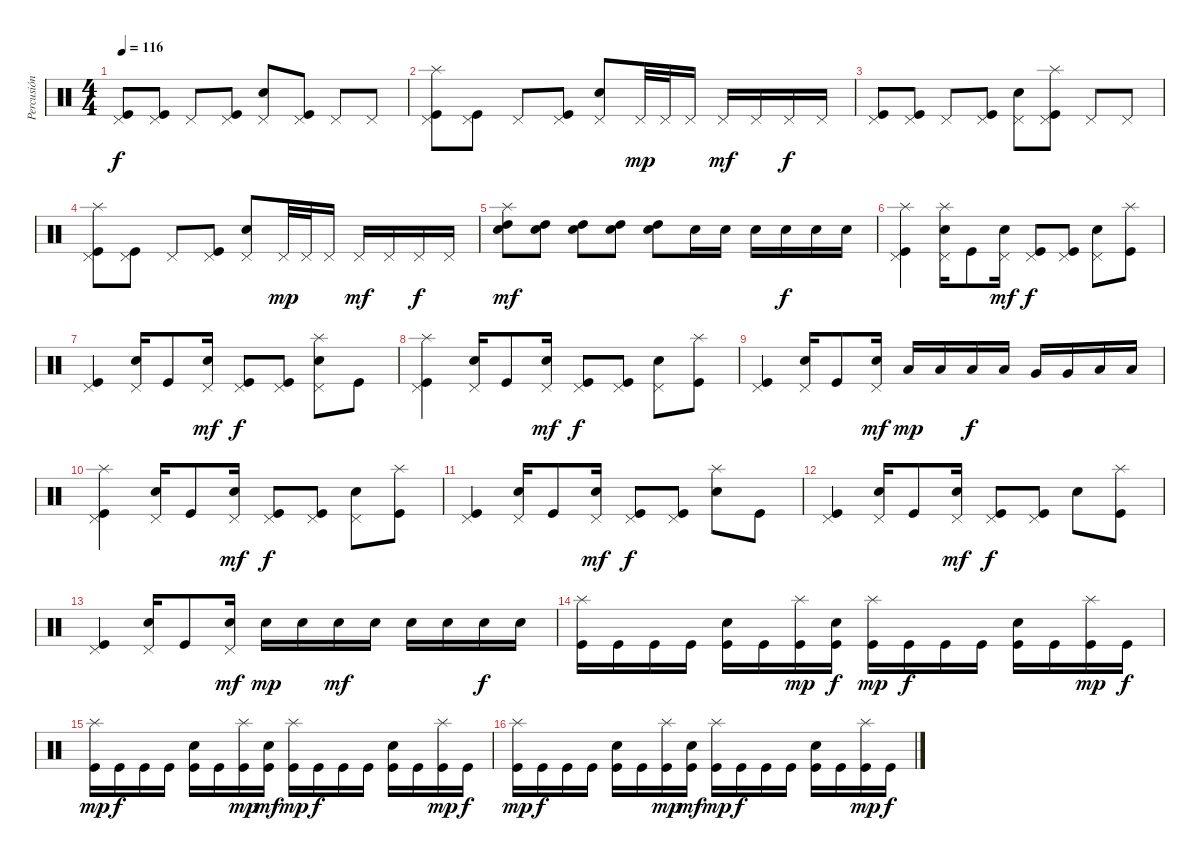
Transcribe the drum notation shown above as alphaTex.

\track ("Percusión" "Percusión") {instrument percussion}
\staff {score}
\articulation defaults
\ts (4 4)
\tempo 116
\clef neutral
\ks c
("Kick (hit)" "Pedal Hi-Hat (hit)").8{dy f} ("Kick (hit)" "Pedal Hi-Hat (hit)").8 "Pedal Hi-Hat (hit)".8 ("Kick (hit)" "Pedal Hi-Hat (hit)").8 ("Snare (hit) 2" "Pedal Hi-Hat (hit)").8 ("Kick (hit)" "Pedal Hi-Hat (hit)").8 "Pedal Hi-Hat (hit)".8 "Pedal Hi-Hat (hit)".8 |
("Kick (hit)" "Splash (hit)" "Pedal Hi-Hat (hit)").8 ("Kick (hit)" "Pedal Hi-Hat (hit)").8 "Pedal Hi-Hat (hit)".8 ("Kick (hit)" "Pedal Hi-Hat (hit)").8 ("Snare (hit) 2" "Pedal Hi-Hat (hit)").8 "Pedal Hi-Hat (hit)".32{dy mp} "Pedal Hi-Hat (hit)".32 "Pedal Hi-Hat (hit)".16 "Pedal Hi-Hat (hit)".16{dy mf} "Pedal Hi-Hat (hit)".16 "Pedal Hi-Hat (hit)".16{dy f} "Pedal Hi-Hat (hit)".16 |
("Kick (hit)" "Pedal Hi-Hat (hit)").8 ("Kick (hit)" "Pedal Hi-Hat (hit)").8 "Pedal Hi-Hat (hit)".8 ("Kick (hit)" "Pedal Hi-Hat (hit)").8 ("Snare (hit) 2" "Pedal Hi-Hat (hit)").8 ("Kick (hit)" "Splash (hit)" "Pedal Hi-Hat (hit)").8 "Pedal Hi-Hat (hit)".8 "Pedal Hi-Hat (hit)".8 |
("Kick (hit)" "Splash (hit)" "Pedal Hi-Hat (hit)").8 ("Kick (hit)" "Pedal Hi-Hat (hit)").8 "Pedal Hi-Hat (hit)".8 ("Kick (hit)" "Pedal Hi-Hat (hit)").8 ("Snare (hit) 2" "Pedal Hi-Hat (hit)").8 "Pedal Hi-Hat (hit)".32{dy mp} "Pedal Hi-Hat (hit)".32 "Pedal Hi-Hat (hit)".16 "Pedal Hi-Hat (hit)".16{dy mf} "Pedal Hi-Hat (hit)".16 "Pedal Hi-Hat (hit)".16{dy f} "Pedal Hi-Hat (hit)".16 |
("High Tom (hit)" "Snare (hit) 2" "Splash (hit)").8{dy mf} ("High Tom (hit)" "Snare (hit) 2").8 ("High Tom (hit)" "Snare (hit) 2").8 ("High Tom (hit)" "Snare (hit) 2").8 ("High Tom (hit)" "Snare (hit) 2").8 "Snare (hit) 2".16 "Snare (hit) 2".16 "Snare (hit) 2".16 "Snare (hit) 2".16{dy f} "Snare (hit) 2".16 "Snare (hit) 2".16 |
("Kick (hit)" "Splash (hit)" "Pedal Hi-Hat (hit)").4 ("Snare (hit) 2" "Splash (hit)" "Pedal Hi-Hat (hit)").16 "Kick (hit)".8 ("Snare (hit) 2" "Pedal Hi-Hat (hit)").16{dy mf} ("Kick (hit)" "Pedal Hi-Hat (hit)").8{dy f} ("Kick (hit)" "Pedal Hi-Hat (hit)").8 ("Snare (hit) 2" "Pedal Hi-Hat (hit)").8 ("Kick (hit)" "Splash (hit)").8 |
("Kick (hit)" "Pedal Hi-Hat (hit)").4 ("Snare (hit) 2" "Pedal Hi-Hat (hit)").16 "Kick (hit)".8 ("Snare (hit) 2" "Pedal Hi-Hat (hit)").16{dy mf} ("Kick (hit)" "Pedal Hi-Hat (hit)").8{dy f} ("Kick (hit)" "Pedal Hi-Hat (hit)").8 ("Snare (hit) 2" "Splash (hit)" "Pedal Hi-Hat (hit)").8 "Kick (hit)".8 |
("Kick (hit)" "Splash (hit)" "Pedal Hi-Hat (hit)").4 ("Snare (hit) 2" "Pedal Hi-Hat (hit)").16 "Kick (hit)".8 ("Snare (hit) 2" "Pedal Hi-Hat (hit)").16{dy mf} ("Kick (hit)" "Pedal Hi-Hat (hit)").8{dy f} ("Kick (hit)" "Pedal Hi-Hat (hit)").8 ("Snare (hit) 2" "Pedal Hi-Hat (hit)").8 ("Kick (hit)" "Splash (hit)").8 |
("Kick (hit)" "Pedal Hi-Hat (hit)").4 ("Snare (hit) 2" "Pedal Hi-Hat (hit)").16 "Kick (hit)".8 ("Snare (hit) 2" "Pedal Hi-Hat (hit)").16{dy mf} "Low Tom (hit)".16{dy mp} "Low Tom (hit)".16 "Low Tom (hit)".16{dy f} "Low Tom (hit)".16 "Very Low Tom (hit)".16 "Very Low Tom (hit)".16 "Low Floor Tom (hit)".16 "Low Floor Tom (hit)".16 |
("Kick (hit)" "Splash (hit)" "Pedal Hi-Hat (hit)").4 ("Snare (hit) 2" "Pedal Hi-Hat (hit)").16 "Kick (hit)".8 ("Snare (hit) 2" "Pedal Hi-Hat (hit)").16{dy mf} ("Kick (hit)" "Pedal Hi-Hat (hit)").8{dy f} ("Kick (hit)" "Pedal Hi-Hat (hit)").8 ("Snare (hit) 2" "Pedal Hi-Hat (hit)").8 ("Kick (hit)" "Splash (hit)").8 |
("Kick (hit)" "Pedal Hi-Hat (hit)").4 ("Snare (hit) 2" "Pedal Hi-Hat (hit)").16 "Kick (hit)".8 ("Snare (hit) 2" "Pedal Hi-Hat (hit)").16{dy mf} ("Kick (hit)" "Pedal Hi-Hat (hit)").8{dy f} ("Kick (hit)" "Pedal Hi-Hat (hit)").8 ("Snare (hit) 2" "Splash (hit)").8 "Kick (hit)".8 |
("Kick (hit)" "Pedal Hi-Hat (hit)").4 ("Snare (hit) 2" "Pedal Hi-Hat (hit)").16 "Kick (hit)".8 ("Snare (hit) 2" "Pedal Hi-Hat (hit)").16{dy mf} ("Kick (hit)" "Pedal Hi-Hat (hit)").8{dy f} ("Kick (hit)" "Pedal Hi-Hat (hit)").8 "Snare (hit) 2".8 ("Kick (hit)" "Splash (hit)").8 |
("Kick (hit)" "Pedal Hi-Hat (hit)").4 ("Snare (hit) 2" "Pedal Hi-Hat (hit)").16 "Kick (hit)".8 ("Snare (hit) 2" "Pedal Hi-Hat (hit)").16{dy mf} "Snare (hit) 2".16{dy mp} "Snare (hit) 2".16 "Snare (hit) 2".16{dy mf} "Snare (hit) 2".16 "Snare (hit) 2".16 "Snare (hit) 2".16 "Snare (hit) 2".16{dy f} "Snare (hit) 2".16 |
("Kick (hit)" "Splash (hit)").16 "Kick (hit)".16 "Kick (hit)".16 "Kick (hit)".16 ("Kick (hit)" "Snare (hit) 2").16 "Kick (hit)".16 ("Kick (hit)" "Splash (hit)").16{dy mp} ("Kick (hit)" "Snare (hit) 2").16{dy f} ("Kick (hit)" "Splash (hit)").16{dy mp} "Kick (hit)".16{dy f} "Kick (hit)".16 "Kick (hit)".16 ("Kick (hit)" "Snare (hit) 2").16 "Kick (hit)".16 ("Kick (hit)" "Splash (hit)").16{dy mp} "Kick (hit)".16{dy f} |
("Kick (hit)" "Splash (hit)").16{dy mp} "Kick (hit)".16{dy f} "Kick (hit)".16 "Kick (hit)".16 ("Kick (hit)" "Snare (hit) 2").16 "Kick (hit)".16 ("Kick (hit)" "Splash (hit)").16{dy mp} ("Kick (hit)" "Snare (hit) 2").16{dy mf} ("Kick (hit)" "Splash (hit)").16{dy mp} "Kick (hit)".16{dy f} "Kick (hit)".16 "Kick (hit)".16 ("Kick (hit)" "Snare (hit) 2").16 "Kick (hit)".16 ("Kick (hit)" "Splash (hit)").16{dy mp} "Kick (hit)".16{dy f} |
("Kick (hit)" "Splash (hit)").16{dy mp} "Kick (hit)".16{dy f} "Kick (hit)".16 "Kick (hit)".16 ("Kick (hit)" "Snare (hit) 2").16 "Kick (hit)".16 ("Kick (hit)" "Splash (hit)").16{dy mp} ("Kick (hit)" "Snare (hit) 2").16{dy mf} ("Kick (hit)" "Splash (hit)").16{dy mp} "Kick (hit)".16{dy f} "Kick (hit)".16 "Kick (hit)".16 ("Kick (hit)" "Snare (hit) 2").16 "Kick (hit)".16 ("Kick (hit)" "Splash (hit)").16{dy mp} "Kick (hit)".16{dy f}
